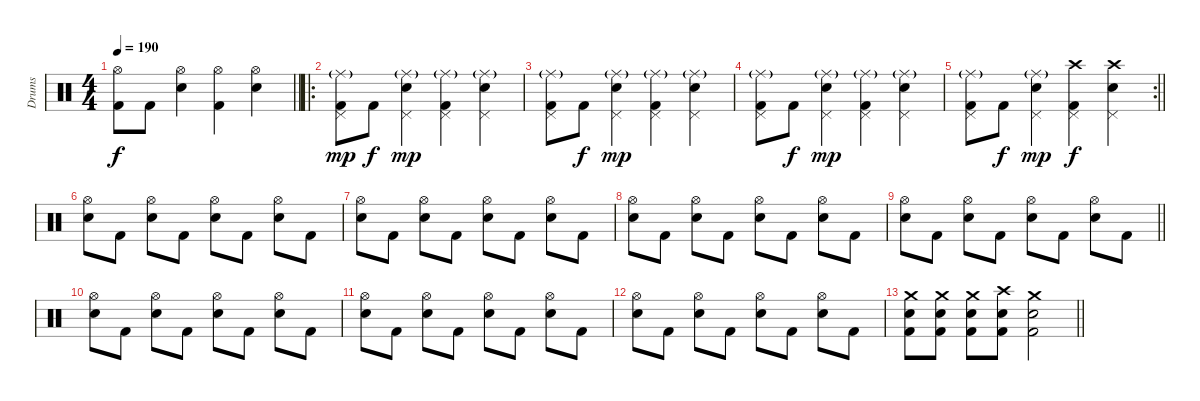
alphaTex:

\track ("Drums" "Drums") {instrument percussion}
\staff {score}
\articulation defaults
\ts (4 4)
\tempo 190
\clef neutral
\barLineRight lightlight
\ks c
("Kick (hit) 2" "Hi-Hat (open)").8{dy f} "Kick (hit) 2".8 ("Snare (hit) 2" "Hi-Hat (open)").4 ("Kick (hit) 2" "Hi-Hat (open)").4 ("Snare (hit) 2" "Hi-Hat (open)").4 |
\ro
\section ("" "")
("Kick (hit) 2" "Pedal Hi-Hat (hit)" "Ride (middle)"{g}).8{dy mp} "Kick (hit) 2".8{dy f} ("Snare (hit) 2" "Pedal Hi-Hat (hit)" "Ride (middle)"{g}).4{dy mp} ("Kick (hit) 2" "Pedal Hi-Hat (hit)" "Ride (middle)"{g}).4 ("Snare (hit) 2" "Pedal Hi-Hat (hit)" "Ride (middle)"{g}).4 |
("Kick (hit) 2" "Pedal Hi-Hat (hit)" "Ride (middle)"{g}).8 "Kick (hit) 2".8{dy f} ("Snare (hit) 2" "Pedal Hi-Hat (hit)" "Ride (middle)"{g}).4{dy mp} ("Kick (hit) 2" "Pedal Hi-Hat (hit)" "Ride (middle)"{g}).4 ("Snare (hit) 2" "Pedal Hi-Hat (hit)" "Ride (middle)"{g}).4 |
("Kick (hit) 2" "Pedal Hi-Hat (hit)" "Ride (middle)"{g}).8 "Kick (hit) 2".8{dy f} ("Snare (hit) 2" "Pedal Hi-Hat (hit)" "Ride (middle)"{g}).4{dy mp} ("Kick (hit) 2" "Pedal Hi-Hat (hit)" "Ride (middle)"{g}).4 ("Snare (hit) 2" "Pedal Hi-Hat (hit)" "Ride (middle)"{g}).4 |
\rc 2
\barLineRight lightlight
("Kick (hit) 2" "Pedal Hi-Hat (hit)" "Ride (middle)"{g}).8 "Kick (hit) 2".8{dy f} ("Snare (hit) 2" "Pedal Hi-Hat (hit)" "Ride (middle)"{g}).4{dy mp} ("Kick (hit) 2" "Pedal Hi-Hat (hit)" "Crash high (hit)").4{dy f} ("Snare (hit) 2" "Pedal Hi-Hat (hit)" "Crash high (hit)").4 |
\section ("" "")
("Snare (hit) 2" "Hi-Hat (open)").8 "Kick (hit) 2".8 ("Snare (hit) 2" "Hi-Hat (open)").8 "Kick (hit) 2".8 ("Snare (hit) 2" "Hi-Hat (open)").8 "Kick (hit) 2".8 ("Snare (hit) 2" "Hi-Hat (open)").8 "Kick (hit) 2".8 |
("Snare (hit) 2" "Hi-Hat (open)").8 "Kick (hit) 2".8 ("Snare (hit) 2" "Hi-Hat (open)").8 "Kick (hit) 2".8 ("Snare (hit) 2" "Hi-Hat (open)").8 "Kick (hit) 2".8 ("Snare (hit) 2" "Hi-Hat (open)").8 "Kick (hit) 2".8 |
("Snare (hit) 2" "Hi-Hat (open)").8 "Kick (hit) 2".8 ("Snare (hit) 2" "Hi-Hat (open)").8 "Kick (hit) 2".8 ("Snare (hit) 2" "Hi-Hat (open)").8 "Kick (hit) 2".8 ("Snare (hit) 2" "Hi-Hat (open)").8 "Kick (hit) 2".8 |
\barLineRight lightlight
("Snare (hit) 2" "Hi-Hat (open)").8 "Kick (hit) 2".8 ("Snare (hit) 2" "Hi-Hat (open)").8 "Kick (hit) 2".8 ("Snare (hit) 2" "Hi-Hat (open)").8 "Kick (hit) 2".8 ("Snare (hit) 2" "Hi-Hat (open)").8 "Kick (hit) 2".8 |
\section ("" "")
("Snare (hit) 2" "Hi-Hat (open)").8 "Kick (hit) 2".8 ("Snare (hit) 2" "Hi-Hat (open)").8 "Kick (hit) 2".8 ("Snare (hit) 2" "Hi-Hat (open)").8 "Kick (hit) 2".8 ("Snare (hit) 2" "Hi-Hat (open)").8 "Kick (hit) 2".8 |
("Snare (hit) 2" "Hi-Hat (open)").8 "Kick (hit) 2".8 ("Snare (hit) 2" "Hi-Hat (open)").8 "Kick (hit) 2".8 ("Snare (hit) 2" "Hi-Hat (open)").8 "Kick (hit) 2".8 ("Snare (hit) 2" "Hi-Hat (open)").8 "Kick (hit) 2".8 |
("Snare (hit) 2" "Hi-Hat (open)").8 "Kick (hit) 2".8 ("Snare (hit) 2" "Hi-Hat (open)").8 "Kick (hit) 2".8 ("Snare (hit) 2" "Hi-Hat (open)").8 "Kick (hit) 2".8 ("Snare (hit) 2" "Hi-Hat (open)").8 "Kick (hit) 2".8 |
\barLineRight lightlight
("Kick (hit) 2" "Snare (hit) 2" "Crash medium (hit)").8 ("Kick (hit) 2" "Snare (hit) 2" "Crash medium (hit)").8 ("Kick (hit) 2" "Snare (hit) 2" "Crash medium (hit)").8 ("Kick (hit) 2" "Snare (hit) 2" "Crash high (hit)").8 ("Kick (hit) 2" "Snare (hit) 2" "Crash medium (hit)").2
